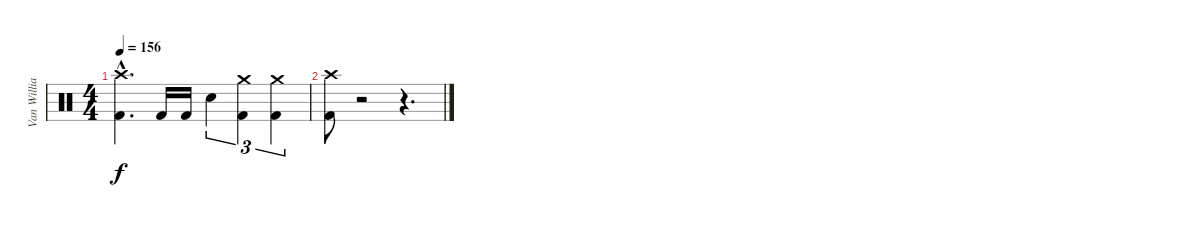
\track ("Van Williams" "Van Willia") {instrument percussion}
\staff {score}
\articulation defaults
\ts (4 4)
\section ("" "")
\tempo 156
\clef neutral
\ks c
("Crash high (hit)"{hac} "Kick (hit) 2"{hac}).4{d dy f} "Kick (hit) 2".16 "Kick (hit) 2".16 "Electric Snare (hit)".4{tu (3 2)} ("Crash medium (hit)" "Kick (hit) 2").4{tu (3 2)} ("Crash medium (hit)" "Kick (hit) 2").4{tu (3 2)} |
("Crash high (hit)" "Kick (hit) 2").8 r.2 r.4{d}
